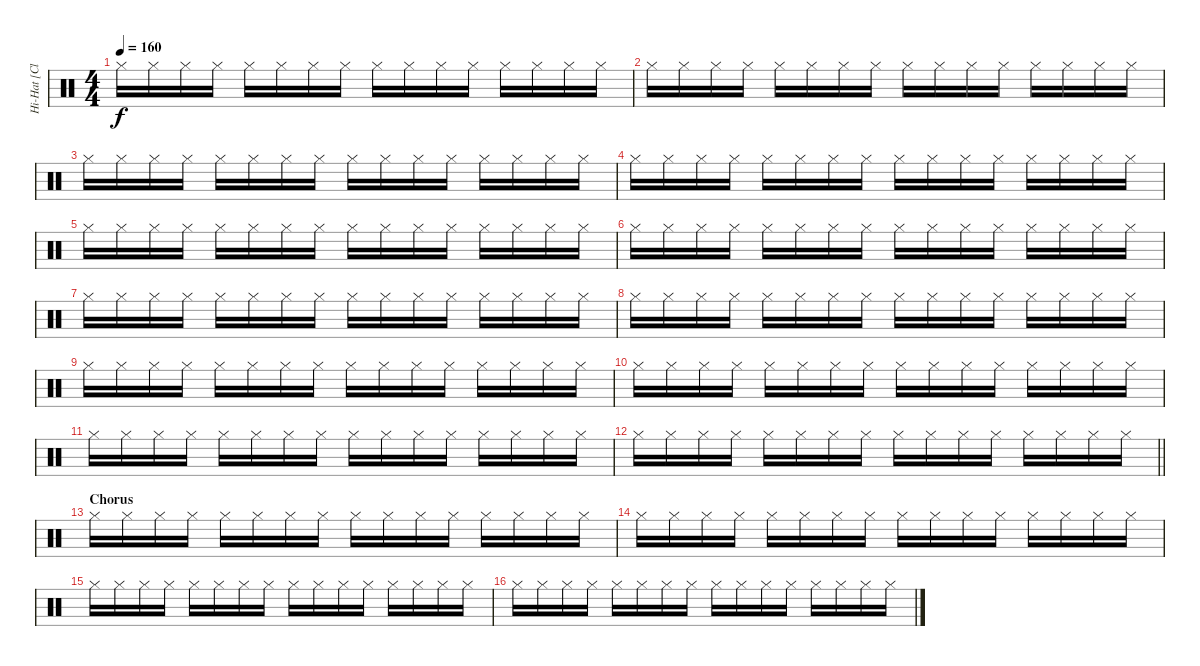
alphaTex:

\track ("Hi-Hat [Closed]" "Hi-Hat [Cl") {instrument percussion}
\staff {score}
\articulation defaults
\ts (4 4)
\tempo 160
\clef neutral
\ks c "Hi-Hat (closed)".16{dy f} "Hi-Hat (closed)".16 "Hi-Hat (closed)".16 "Hi-Hat (closed)".16 "Hi-Hat (closed)".16 "Hi-Hat (closed)".16 "Hi-Hat (closed)".16 "Hi-Hat (closed)".16 "Hi-Hat (closed)".16 "Hi-Hat (closed)".16 "Hi-Hat (closed)".16 "Hi-Hat (closed)".16 "Hi-Hat (closed)".16 "Hi-Hat (closed)".16 "Hi-Hat (closed)".16 "Hi-Hat (closed)".16
|
"Hi-Hat (closed)".16 "Hi-Hat (closed)".16 "Hi-Hat (closed)".16 "Hi-Hat (closed)".16 "Hi-Hat (closed)".16 "Hi-Hat (closed)".16 "Hi-Hat (closed)".16 "Hi-Hat (closed)".16 "Hi-Hat (closed)".16 "Hi-Hat (closed)".16 "Hi-Hat (closed)".16 "Hi-Hat (closed)".16 "Hi-Hat (closed)".16 "Hi-Hat (closed)".16 "Hi-Hat (closed)".16 "Hi-Hat (closed)".16 |
"Hi-Hat (closed)".16 "Hi-Hat (closed)".16 "Hi-Hat (closed)".16 "Hi-Hat (closed)".16 "Hi-Hat (closed)".16 "Hi-Hat (closed)".16 "Hi-Hat (closed)".16 "Hi-Hat (closed)".16 "Hi-Hat (closed)".16 "Hi-Hat (closed)".16 "Hi-Hat (closed)".16 "Hi-Hat (closed)".16 "Hi-Hat (closed)".16 "Hi-Hat (closed)".16 "Hi-Hat (closed)".16 "Hi-Hat (closed)".16 |
"Hi-Hat (closed)".16 "Hi-Hat (closed)".16 "Hi-Hat (closed)".16 "Hi-Hat (closed)".16 "Hi-Hat (closed)".16 "Hi-Hat (closed)".16 "Hi-Hat (closed)".16 "Hi-Hat (closed)".16 "Hi-Hat (closed)".16 "Hi-Hat (closed)".16 "Hi-Hat (closed)".16 "Hi-Hat (closed)".16 "Hi-Hat (closed)".16 "Hi-Hat (closed)".16 "Hi-Hat (closed)".16 "Hi-Hat (closed)".16 |
"Hi-Hat (closed)".16 "Hi-Hat (closed)".16 "Hi-Hat (closed)".16 "Hi-Hat (closed)".16 "Hi-Hat (closed)".16 "Hi-Hat (closed)".16 "Hi-Hat (closed)".16 "Hi-Hat (closed)".16 "Hi-Hat (closed)".16 "Hi-Hat (closed)".16 "Hi-Hat (closed)".16 "Hi-Hat (closed)".16 "Hi-Hat (closed)".16 "Hi-Hat (closed)".16 "Hi-Hat (closed)".16 "Hi-Hat (closed)".16 |
"Hi-Hat (closed)".16 "Hi-Hat (closed)".16 "Hi-Hat (closed)".16 "Hi-Hat (closed)".16 "Hi-Hat (closed)".16 "Hi-Hat (closed)".16 "Hi-Hat (closed)".16 "Hi-Hat (closed)".16 "Hi-Hat (closed)".16 "Hi-Hat (closed)".16 "Hi-Hat (closed)".16 "Hi-Hat (closed)".16 "Hi-Hat (closed)".16 "Hi-Hat (closed)".16 "Hi-Hat (closed)".16 "Hi-Hat (closed)".16 |
"Hi-Hat (closed)".16 "Hi-Hat (closed)".16 "Hi-Hat (closed)".16 "Hi-Hat (closed)".16 "Hi-Hat (closed)".16 "Hi-Hat (closed)".16 "Hi-Hat (closed)".16 "Hi-Hat (closed)".16 "Hi-Hat (closed)".16 "Hi-Hat (closed)".16 "Hi-Hat (closed)".16 "Hi-Hat (closed)".16 "Hi-Hat (closed)".16 "Hi-Hat (closed)".16 "Hi-Hat (closed)".16 "Hi-Hat (closed)".16 |
"Hi-Hat (closed)".16 "Hi-Hat (closed)".16 "Hi-Hat (closed)".16 "Hi-Hat (closed)".16 "Hi-Hat (closed)".16 "Hi-Hat (closed)".16 "Hi-Hat (closed)".16 "Hi-Hat (closed)".16 "Hi-Hat (closed)".16 "Hi-Hat (closed)".16 "Hi-Hat (closed)".16 "Hi-Hat (closed)".16 "Hi-Hat (closed)".16 "Hi-Hat (closed)".16 "Hi-Hat (closed)".16 "Hi-Hat (closed)".16 |
"Hi-Hat (closed)".16 "Hi-Hat (closed)".16 "Hi-Hat (closed)".16 "Hi-Hat (closed)".16 "Hi-Hat (closed)".16 "Hi-Hat (closed)".16 "Hi-Hat (closed)".16 "Hi-Hat (closed)".16 "Hi-Hat (closed)".16 "Hi-Hat (closed)".16 "Hi-Hat (closed)".16 "Hi-Hat (closed)".16 "Hi-Hat (closed)".16 "Hi-Hat (closed)".16 "Hi-Hat (closed)".16 "Hi-Hat (closed)".16 |
"Hi-Hat (closed)".16 "Hi-Hat (closed)".16 "Hi-Hat (closed)".16 "Hi-Hat (closed)".16 "Hi-Hat (closed)".16 "Hi-Hat (closed)".16 "Hi-Hat (closed)".16 "Hi-Hat (closed)".16 "Hi-Hat (closed)".16 "Hi-Hat (closed)".16 "Hi-Hat (closed)".16 "Hi-Hat (closed)".16 "Hi-Hat (closed)".16 "Hi-Hat (closed)".16 "Hi-Hat (closed)".16 "Hi-Hat (closed)".16 |
"Hi-Hat (closed)".16 "Hi-Hat (closed)".16 "Hi-Hat (closed)".16 "Hi-Hat (closed)".16 "Hi-Hat (closed)".16 "Hi-Hat (closed)".16 "Hi-Hat (closed)".16 "Hi-Hat (closed)".16 "Hi-Hat (closed)".16 "Hi-Hat (closed)".16 "Hi-Hat (closed)".16 "Hi-Hat (closed)".16 "Hi-Hat (closed)".16 "Hi-Hat (closed)".16 "Hi-Hat (closed)".16 "Hi-Hat (closed)".16 |
\barLineRight lightlight "Hi-Hat (closed)".16 "Hi-Hat (closed)".16 "Hi-Hat (closed)".16 "Hi-Hat (closed)".16 "Hi-Hat (closed)".16 "Hi-Hat (closed)".16 "Hi-Hat (closed)".16 "Hi-Hat (closed)".16 "Hi-Hat (closed)".16 "Hi-Hat (closed)".16 "Hi-Hat (closed)".16 "Hi-Hat (closed)".16 "Hi-Hat (closed)".16 "Hi-Hat (closed)".16 "Hi-Hat (closed)".16 "Hi-Hat (closed)".16
|
\section ("" "Chorus")
"Hi-Hat (closed)".16 "Hi-Hat (closed)".16 "Hi-Hat (closed)".16 "Hi-Hat (closed)".16 "Hi-Hat (closed)".16 "Hi-Hat (closed)".16 "Hi-Hat (closed)".16 "Hi-Hat (closed)".16 "Hi-Hat (closed)".16 "Hi-Hat (closed)".16 "Hi-Hat (closed)".16 "Hi-Hat (closed)".16 "Hi-Hat (closed)".16 "Hi-Hat (closed)".16 "Hi-Hat (closed)".16 "Hi-Hat (closed)".16 |
"Hi-Hat (closed)".16 "Hi-Hat (closed)".16 "Hi-Hat (closed)".16 "Hi-Hat (closed)".16 "Hi-Hat (closed)".16 "Hi-Hat (closed)".16 "Hi-Hat (closed)".16 "Hi-Hat (closed)".16 "Hi-Hat (closed)".16 "Hi-Hat (closed)".16 "Hi-Hat (closed)".16 "Hi-Hat (closed)".16 "Hi-Hat (closed)".16 "Hi-Hat (closed)".16 "Hi-Hat (closed)".16 "Hi-Hat (closed)".16 |
"Hi-Hat (closed)".16 "Hi-Hat (closed)".16 "Hi-Hat (closed)".16 "Hi-Hat (closed)".16 "Hi-Hat (closed)".16 "Hi-Hat (closed)".16 "Hi-Hat (closed)".16 "Hi-Hat (closed)".16 "Hi-Hat (closed)".16 "Hi-Hat (closed)".16 "Hi-Hat (closed)".16 "Hi-Hat (closed)".16 "Hi-Hat (closed)".16 "Hi-Hat (closed)".16 "Hi-Hat (closed)".16 "Hi-Hat (closed)".16 |
"Hi-Hat (closed)".16 "Hi-Hat (closed)".16 "Hi-Hat (closed)".16 "Hi-Hat (closed)".16 "Hi-Hat (closed)".16 "Hi-Hat (closed)".16 "Hi-Hat (closed)".16 "Hi-Hat (closed)".16 "Hi-Hat (closed)".16 "Hi-Hat (closed)".16 "Hi-Hat (closed)".16 "Hi-Hat (closed)".16 "Hi-Hat (closed)".16 "Hi-Hat (closed)".16 "Hi-Hat (closed)".16 "Hi-Hat (closed)".16
